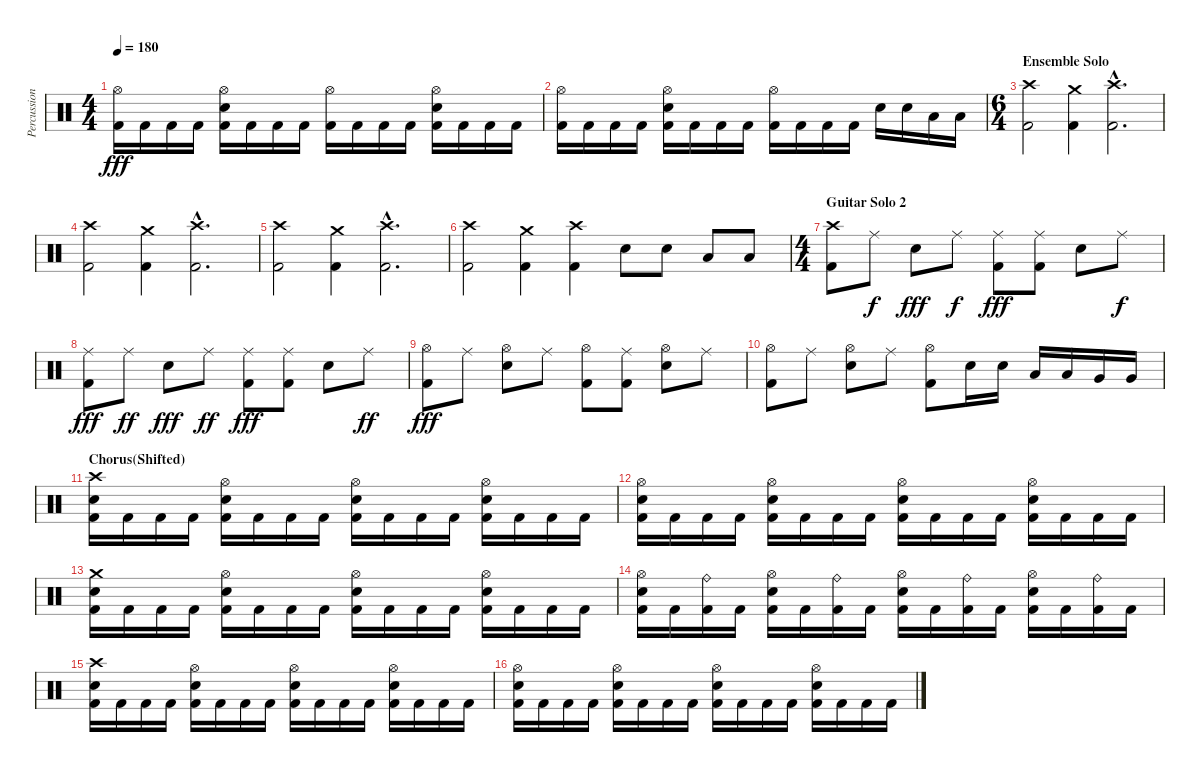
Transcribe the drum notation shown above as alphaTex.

\track ("Percussion" "Percussion") {instrument percussion}
\staff {score}
\articulation defaults
\ts (4 4)
\tempo 180
\clef neutral
\ks c
("Hi-Hat (open)" "Kick (hit) 2").16{dy fff} "Kick (hit) 2".16 "Kick (hit) 2".16 "Kick (hit) 2".16 ("Hi-Hat (open)" "Snare (hit) 2" "Kick (hit) 2").16 "Kick (hit) 2".16 "Kick (hit) 2".16 "Kick (hit) 2".16 ("Hi-Hat (open)" "Kick (hit) 2").16 "Kick (hit) 2".16 "Kick (hit) 2".16 "Kick (hit) 2".16 ("Hi-Hat (open)" "Snare (hit) 2" "Kick (hit) 2").16 "Kick (hit) 2".16 "Kick (hit) 2".16 "Kick (hit) 2".16 |
("Hi-Hat (open)" "Kick (hit) 2").16 "Kick (hit) 2".16 "Kick (hit) 2".16 "Kick (hit) 2".16 ("Hi-Hat (open)" "Snare (hit) 2" "Kick (hit) 2").16 "Kick (hit) 2".16 "Kick (hit) 2".16 "Kick (hit) 2".16 ("Hi-Hat (open)" "Kick (hit) 2").16 "Kick (hit) 2".16 "Kick (hit) 2".16 "Kick (hit) 2".16 "Snare (hit) 2".16 "Snare (hit) 2".16 "Low Tom (hit)".16 "Low Tom (hit)".16 |
\ts (6 4)
\section ("" "Ensemble Solo")
("Crash high (hit)" "Kick (hit) 2").2 ("Crash medium (hit)" "Kick (hit) 2").4 ("Crash high (hit)"{hac} "Kick (hit) 2"{hac}).2{d} |
("Crash high (hit)" "Kick (hit) 2").2 ("Crash medium (hit)" "Kick (hit) 2").4 ("Crash high (hit)"{hac} "Kick (hit) 2"{hac}).2{d} |
("Crash high (hit)" "Kick (hit) 2").2 ("Crash medium (hit)" "Kick (hit) 2").4 ("Crash high (hit)"{hac} "Kick (hit) 2"{hac}).2{d} |
("Crash high (hit)" "Kick (hit) 2").2 ("Crash medium (hit)" "Kick (hit) 2").4 ("Crash high (hit)" "Kick (hit) 2").4 "Snare (hit) 2".8 "Snare (hit) 2".8 "Low Tom (hit)".8 "Low Tom (hit)".8 |
\ts (4 4)
\section ("" "Guitar Solo 2")
("Crash high (hit)" "Kick (hit) 2").8 "Ride (middle)".8{dy f} "Snare (hit) 2".8{dy fff} "Ride (middle)".8{dy f} ("Ride (middle)" "Kick (hit) 2").8{dy fff} ("Ride (middle)" "Kick (hit) 2").8 "Snare (hit) 2".8 "Ride (middle)".8{dy f} |
("Ride (middle)" "Kick (hit) 2").8{dy fff} "Ride (middle)".8{dy ff} "Snare (hit) 2".8{dy fff} "Ride (middle)".8{dy ff} ("Ride (middle)" "Kick (hit) 2").8{dy fff} ("Ride (middle)" "Kick (hit) 2").8 "Snare (hit) 2".8 "Ride (middle)".8{dy ff} |
("Hi-Hat (open)" "Kick (hit) 2").8{dy fff} "Ride (middle)".8 ("Hi-Hat (open)" "Snare (hit) 2").8 "Ride (middle)".8 ("Hi-Hat (open)" "Kick (hit) 2").8 ("Ride (middle)" "Kick (hit) 2").8 ("Hi-Hat (open)" "Snare (hit) 2").8 "Ride (middle)".8 |
("Hi-Hat (open)" "Kick (hit) 2").8 "Ride (middle)".8 ("Hi-Hat (open)" "Snare (hit) 2").8 "Ride (middle)".8 ("Hi-Hat (open)" "Kick (hit) 2").8 "Snare (hit) 2".16 "Snare (hit) 2".16 "Low Tom (hit)".16 "Low Tom (hit)".16 "Very Low Tom (hit)".16 "Very Low Tom (hit)".16 |
\section ("" "Chorus(Shifted)")
("Crash high (hit)" "Snare (hit) 2" "Kick (hit) 2").16 "Kick (hit) 2".16 "Kick (hit) 2".16 "Kick (hit) 2".16 ("Hi-Hat (open)" "Snare (hit) 2" "Kick (hit) 2").16 "Kick (hit) 2".16 "Kick (hit) 2".16 "Kick (hit) 2".16 ("Hi-Hat (open)" "Snare (hit) 2" "Kick (hit) 2").16 "Kick (hit) 2".16 "Kick (hit) 2".16 "Kick (hit) 2".16 ("Hi-Hat (open)" "Snare (hit) 2" "Kick (hit) 2").16 "Kick (hit) 2".16 "Kick (hit) 2".16 "Kick (hit) 2".16 |
("Hi-Hat (open)" "Snare (hit) 2" "Kick (hit) 2").16 "Kick (hit) 2".16 "Kick (hit) 2".16 "Kick (hit) 2".16 ("Hi-Hat (open)" "Snare (hit) 2" "Kick (hit) 2").16 "Kick (hit) 2".16 "Kick (hit) 2".16 "Kick (hit) 2".16 ("Hi-Hat (open)" "Snare (hit) 2" "Kick (hit) 2").16 "Kick (hit) 2".16 "Kick (hit) 2".16 "Kick (hit) 2".16 ("Hi-Hat (open)" "Snare (hit) 2" "Kick (hit) 2").16 "Kick (hit) 2".16 "Kick (hit) 2".16 "Kick (hit) 2".16 |
("Crash medium (hit)" "Snare (hit) 2" "Kick (hit) 2").16 "Kick (hit) 2".16 "Kick (hit) 2".16 "Kick (hit) 2".16 ("Hi-Hat (open)" "Snare (hit) 2" "Kick (hit) 2").16 "Kick (hit) 2".16 "Kick (hit) 2".16 "Kick (hit) 2".16 ("Hi-Hat (open)" "Snare (hit) 2" "Kick (hit) 2").16 "Kick (hit) 2".16 "Kick (hit) 2".16 "Kick (hit) 2".16 ("Hi-Hat (open)" "Snare (hit) 2" "Kick (hit) 2").16 "Kick (hit) 2".16 "Kick (hit) 2".16 "Kick (hit) 2".16 |
("Hi-Hat (open)" "Snare (hit) 2" "Kick (hit) 2").16 "Kick (hit) 2".16 ("Ride (bell)" "Kick (hit) 2").16 "Kick (hit) 2".16 ("Hi-Hat (open)" "Snare (hit) 2" "Kick (hit) 2").16 "Kick (hit) 2".16 ("Ride (bell)" "Kick (hit) 2").16 "Kick (hit) 2".16 ("Hi-Hat (open)" "Snare (hit) 2" "Kick (hit) 2").16 "Kick (hit) 2".16 ("Ride (bell)" "Kick (hit) 2").16 "Kick (hit) 2".16 ("Hi-Hat (open)" "Snare (hit) 2" "Kick (hit) 2").16 "Kick (hit) 2".16 ("Ride (bell)" "Kick (hit) 2").16 "Kick (hit) 2".16 |
("Crash high (hit)" "Snare (hit) 2" "Kick (hit) 2").16 "Kick (hit) 2".16 "Kick (hit) 2".16 "Kick (hit) 2".16 ("Hi-Hat (open)" "Snare (hit) 2" "Kick (hit) 2").16 "Kick (hit) 2".16 "Kick (hit) 2".16 "Kick (hit) 2".16 ("Hi-Hat (open)" "Snare (hit) 2" "Kick (hit) 2").16 "Kick (hit) 2".16 "Kick (hit) 2".16 "Kick (hit) 2".16 ("Hi-Hat (open)" "Snare (hit) 2" "Kick (hit) 2").16 "Kick (hit) 2".16 "Kick (hit) 2".16 "Kick (hit) 2".16 |
("Hi-Hat (open)" "Snare (hit) 2" "Kick (hit) 2").16 "Kick (hit) 2".16 "Kick (hit) 2".16 "Kick (hit) 2".16 ("Hi-Hat (open)" "Snare (hit) 2" "Kick (hit) 2").16 "Kick (hit) 2".16 "Kick (hit) 2".16 "Kick (hit) 2".16 ("Hi-Hat (open)" "Snare (hit) 2" "Kick (hit) 2").16 "Kick (hit) 2".16 "Kick (hit) 2".16 "Kick (hit) 2".16 ("Hi-Hat (open)" "Snare (hit) 2" "Kick (hit) 2").16 "Kick (hit) 2".16 "Kick (hit) 2".16 "Kick (hit) 2".16
